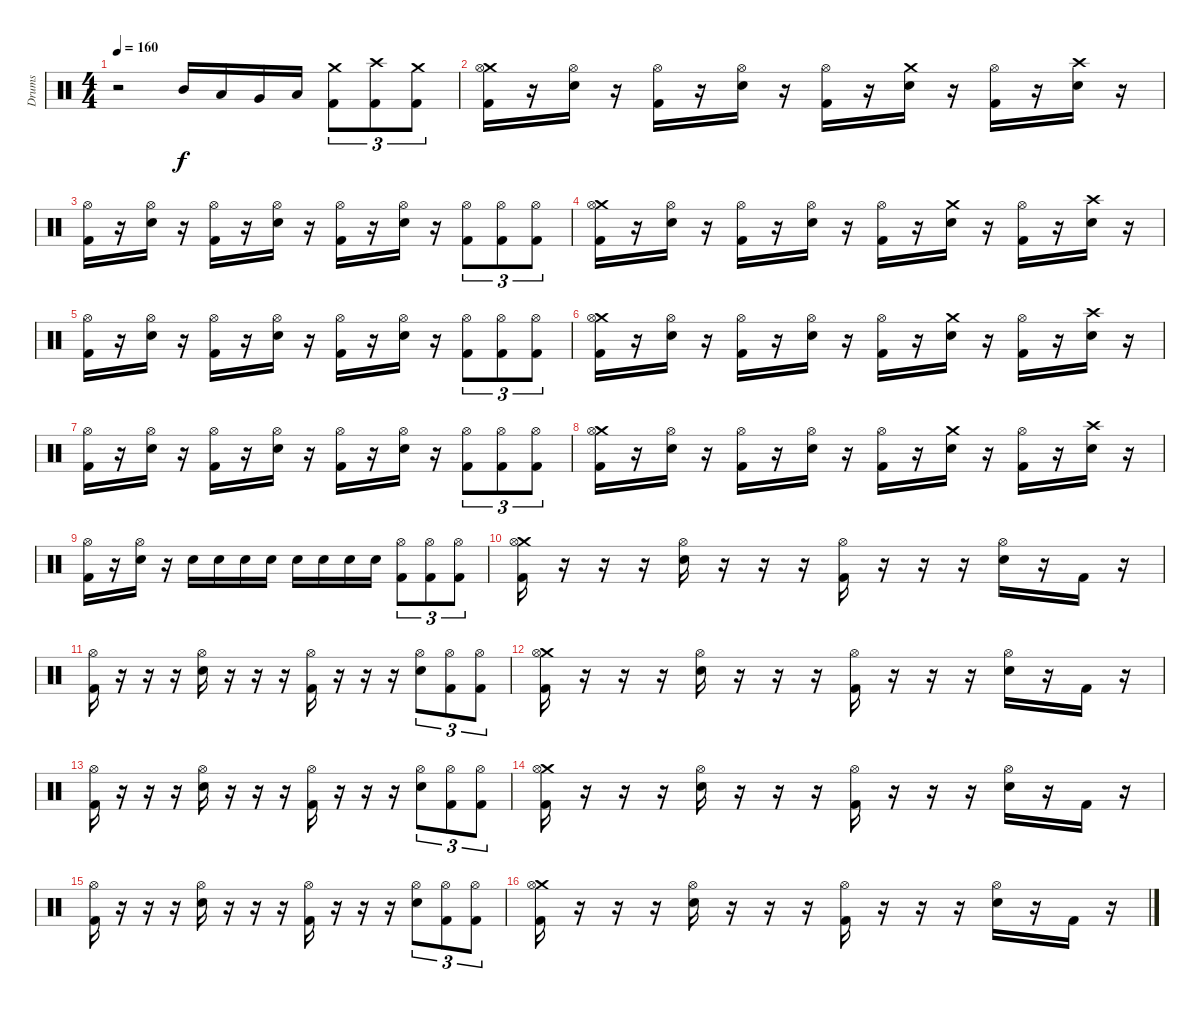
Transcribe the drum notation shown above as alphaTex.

\track ("Drums" "Drums") {instrument percussion}
\staff {score}
\articulation defaults
\ts (4 4)
\tempo 160
\clef neutral
\ks c
r.2{dy f} "Mid Tom (hit)".16 "Low Tom (hit)".16 "Very Low Tom (hit)".16 "Low Floor Tom (hit)".16 ("Crash medium (hit)" "Kick (hit) 2").8{tu (3 2)} ("Crash high (hit)" "Kick (hit) 2").8{tu (3 2)} ("Crash medium (hit)" "Kick (hit) 2").8{tu (3 2)} |
("Crash medium (hit)" "Hi-Hat (open)" "Kick (hit) 2").16 r.16 ("Hi-Hat (open)" "Electric Snare (hit)").16 r.16 ("Hi-Hat (open)" "Kick (hit) 2").16 r.16 ("Hi-Hat (open)" "Electric Snare (hit)").16 r.16 ("Hi-Hat (open)" "Kick (hit) 2").16 r.16 ("Crash medium (hit)" "Electric Snare (hit)").16 r.16 ("Hi-Hat (open)" "Kick (hit) 2").16 r.16 ("Crash high (hit)" "Electric Snare (hit)").16 r.16 |
("Hi-Hat (open)" "Kick (hit) 2").16 r.16 ("Hi-Hat (open)" "Electric Snare (hit)").16 r.16 ("Hi-Hat (open)" "Kick (hit) 2").16 r.16 ("Hi-Hat (open)" "Electric Snare (hit)").16 r.16 ("Hi-Hat (open)" "Kick (hit) 2").16 r.16 ("Hi-Hat (open)" "Electric Snare (hit)").16 r.16 ("Hi-Hat (open)" "Kick (hit) 2").8{tu (3 2)} ("Hi-Hat (open)" "Kick (hit) 2").8{tu (3 2)} ("Hi-Hat (open)" "Kick (hit) 2").8{tu (3 2)} |
("Crash medium (hit)" "Hi-Hat (open)" "Kick (hit) 2").16 r.16 ("Hi-Hat (open)" "Electric Snare (hit)").16 r.16 ("Hi-Hat (open)" "Kick (hit) 2").16 r.16 ("Hi-Hat (open)" "Electric Snare (hit)").16 r.16 ("Hi-Hat (open)" "Kick (hit) 2").16 r.16 ("Crash medium (hit)" "Electric Snare (hit)").16 r.16 ("Hi-Hat (open)" "Kick (hit) 2").16 r.16 ("Crash high (hit)" "Electric Snare (hit)").16 r.16 |
("Hi-Hat (open)" "Kick (hit) 2").16 r.16 ("Hi-Hat (open)" "Electric Snare (hit)").16 r.16 ("Hi-Hat (open)" "Kick (hit) 2").16 r.16 ("Hi-Hat (open)" "Electric Snare (hit)").16 r.16 ("Hi-Hat (open)" "Kick (hit) 2").16 r.16 ("Hi-Hat (open)" "Electric Snare (hit)").16 r.16 ("Hi-Hat (open)" "Kick (hit) 2").8{tu (3 2)} ("Hi-Hat (open)" "Kick (hit) 2").8{tu (3 2)} ("Hi-Hat (open)" "Kick (hit) 2").8{tu (3 2)} |
("Crash medium (hit)" "Hi-Hat (open)" "Kick (hit) 2").16 r.16 ("Hi-Hat (open)" "Electric Snare (hit)").16 r.16 ("Hi-Hat (open)" "Kick (hit) 2").16 r.16 ("Hi-Hat (open)" "Electric Snare (hit)").16 r.16 ("Hi-Hat (open)" "Kick (hit) 2").16 r.16 ("Crash medium (hit)" "Electric Snare (hit)").16 r.16 ("Hi-Hat (open)" "Kick (hit) 2").16 r.16 ("Crash high (hit)" "Electric Snare (hit)").16 r.16 |
("Hi-Hat (open)" "Kick (hit) 2").16 r.16 ("Hi-Hat (open)" "Electric Snare (hit)").16 r.16 ("Hi-Hat (open)" "Kick (hit) 2").16 r.16 ("Hi-Hat (open)" "Electric Snare (hit)").16 r.16 ("Hi-Hat (open)" "Kick (hit) 2").16 r.16 ("Hi-Hat (open)" "Electric Snare (hit)").16 r.16 ("Hi-Hat (open)" "Kick (hit) 2").8{tu (3 2)} ("Hi-Hat (open)" "Kick (hit) 2").8{tu (3 2)} ("Hi-Hat (open)" "Kick (hit) 2").8{tu (3 2)} |
("Crash medium (hit)" "Hi-Hat (open)" "Kick (hit) 2").16 r.16 ("Hi-Hat (open)" "Electric Snare (hit)").16 r.16 ("Hi-Hat (open)" "Kick (hit) 2").16 r.16 ("Hi-Hat (open)" "Electric Snare (hit)").16 r.16 ("Hi-Hat (open)" "Kick (hit) 2").16 r.16 ("Crash medium (hit)" "Electric Snare (hit)").16 r.16 ("Hi-Hat (open)" "Kick (hit) 2").16 r.16 ("Crash high (hit)" "Electric Snare (hit)").16 r.16 |
("Hi-Hat (open)" "Kick (hit) 2").16 r.16 ("Hi-Hat (open)" "Electric Snare (hit)").16 r.16 "Electric Snare (hit)".16 "Electric Snare (hit)".16 "Electric Snare (hit)".16 "Electric Snare (hit)".16 "Electric Snare (hit)".16 "Electric Snare (hit)".16 "Electric Snare (hit)".16 "Electric Snare (hit)".16 ("Hi-Hat (open)" "Kick (hit) 2").8{tu (3 2)} ("Hi-Hat (open)" "Kick (hit) 2").8{tu (3 2)} ("Hi-Hat (open)" "Kick (hit) 2").8{tu (3 2)} |
("Crash medium (hit)" "Hi-Hat (open)" "Kick (hit) 2").16 r.16 r.16 r.16 ("Hi-Hat (open)" "Electric Snare (hit)").16 r.16 r.16 r.16 ("Hi-Hat (open)" "Kick (hit) 2").16 r.16 r.16 r.16 ("Hi-Hat (open)" "Electric Snare (hit)").16 r.16 "Kick (hit) 2".16 r.16 |
("Hi-Hat (open)" "Kick (hit) 2").16 r.16 r.16 r.16 ("Hi-Hat (open)" "Electric Snare (hit)").16 r.16 r.16 r.16 ("Hi-Hat (open)" "Kick (hit) 2").16 r.16 r.16 r.16 ("Hi-Hat (open)" "Electric Snare (hit)").8{tu (3 2)} ("Hi-Hat (open)" "Kick (hit) 2").8{tu (3 2)} ("Hi-Hat (open)" "Kick (hit) 2").8{tu (3 2)} |
("Crash medium (hit)" "Hi-Hat (open)" "Kick (hit) 2").16 r.16 r.16 r.16 ("Hi-Hat (open)" "Electric Snare (hit)").16 r.16 r.16 r.16 ("Hi-Hat (open)" "Kick (hit) 2").16 r.16 r.16 r.16 ("Hi-Hat (open)" "Electric Snare (hit)").16 r.16 "Kick (hit) 2".16 r.16 |
("Hi-Hat (open)" "Kick (hit) 2").16 r.16 r.16 r.16 ("Hi-Hat (open)" "Electric Snare (hit)").16 r.16 r.16 r.16 ("Hi-Hat (open)" "Kick (hit) 2").16 r.16 r.16 r.16 ("Hi-Hat (open)" "Electric Snare (hit)").8{tu (3 2)} ("Hi-Hat (open)" "Kick (hit) 2").8{tu (3 2)} ("Hi-Hat (open)" "Kick (hit) 2").8{tu (3 2)} |
("Crash medium (hit)" "Hi-Hat (open)" "Kick (hit) 2").16 r.16 r.16 r.16 ("Hi-Hat (open)" "Electric Snare (hit)").16 r.16 r.16 r.16 ("Hi-Hat (open)" "Kick (hit) 2").16 r.16 r.16 r.16 ("Hi-Hat (open)" "Electric Snare (hit)").16 r.16 "Kick (hit) 2".16 r.16 |
("Hi-Hat (open)" "Kick (hit) 2").16 r.16 r.16 r.16 ("Hi-Hat (open)" "Electric Snare (hit)").16 r.16 r.16 r.16 ("Hi-Hat (open)" "Kick (hit) 2").16 r.16 r.16 r.16 ("Hi-Hat (open)" "Electric Snare (hit)").8{tu (3 2)} ("Hi-Hat (open)" "Kick (hit) 2").8{tu (3 2)} ("Hi-Hat (open)" "Kick (hit) 2").8{tu (3 2)} |
("Crash medium (hit)" "Hi-Hat (open)" "Kick (hit) 2").16 r.16 r.16 r.16 ("Hi-Hat (open)" "Electric Snare (hit)").16 r.16 r.16 r.16 ("Hi-Hat (open)" "Kick (hit) 2").16 r.16 r.16 r.16 ("Hi-Hat (open)" "Electric Snare (hit)").16 r.16 "Kick (hit) 2".16 r.16
